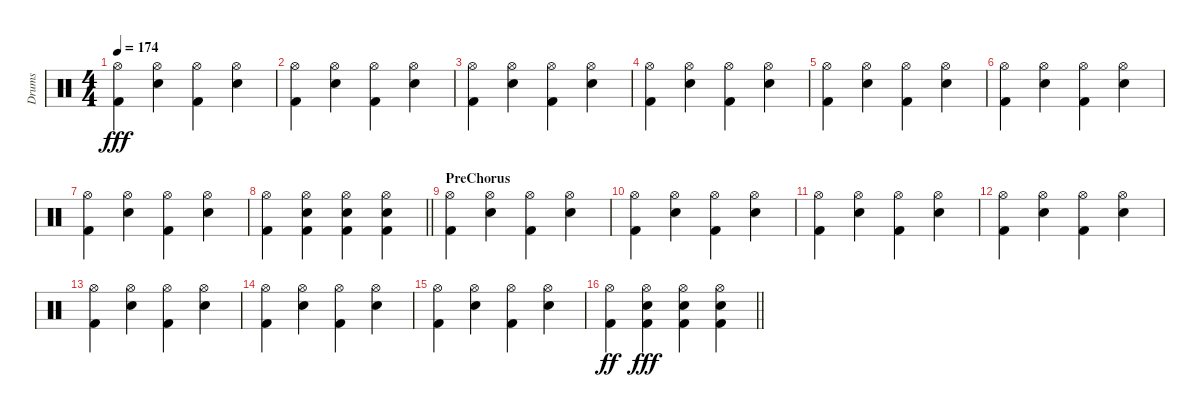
\track ("Drums" "Drums") {instrument percussion}
\staff {score}
\articulation defaults
\ts (4 4)
\tempo 174
\clef neutral
\ks c
("Hi-Hat (open)" "Kick (hit) 2").4{dy fff} ("Hi-Hat (open)" "Electric Snare (hit)").4 ("Hi-Hat (open)" "Kick (hit) 2").4 ("Hi-Hat (open)" "Electric Snare (hit)").4 |
("Hi-Hat (open)" "Kick (hit) 2").4 ("Hi-Hat (open)" "Electric Snare (hit)").4 ("Hi-Hat (open)" "Kick (hit) 2").4 ("Hi-Hat (open)" "Electric Snare (hit)").4 |
("Hi-Hat (open)" "Kick (hit) 2").4 ("Hi-Hat (open)" "Electric Snare (hit)").4 ("Hi-Hat (open)" "Kick (hit) 2").4 ("Hi-Hat (open)" "Electric Snare (hit)").4 |
("Hi-Hat (open)" "Kick (hit) 2").4 ("Hi-Hat (open)" "Electric Snare (hit)").4 ("Hi-Hat (open)" "Kick (hit) 2").4 ("Hi-Hat (open)" "Electric Snare (hit)").4 |
("Hi-Hat (open)" "Kick (hit) 2").4 ("Hi-Hat (open)" "Electric Snare (hit)").4 ("Hi-Hat (open)" "Kick (hit) 2").4 ("Hi-Hat (open)" "Electric Snare (hit)").4 |
("Hi-Hat (open)" "Kick (hit) 2").4 ("Hi-Hat (open)" "Electric Snare (hit)").4 ("Hi-Hat (open)" "Kick (hit) 2").4 ("Hi-Hat (open)" "Electric Snare (hit)").4 |
("Hi-Hat (open)" "Kick (hit) 2").4 ("Hi-Hat (open)" "Electric Snare (hit)").4 ("Hi-Hat (open)" "Kick (hit) 2").4 ("Hi-Hat (open)" "Electric Snare (hit)").4 |
\barLineRight lightlight
("Hi-Hat (open)" "Kick (hit) 2").4 ("Hi-Hat (open)" "Electric Snare (hit)" "Kick (hit) 2").4 ("Hi-Hat (open)" "Electric Snare (hit)" "Kick (hit) 2").4 ("Hi-Hat (open)" "Electric Snare (hit)" "Kick (hit) 2").4 |
\section ("" "PreChorus")
("Hi-Hat (open)" "Kick (hit) 2").4 ("Hi-Hat (open)" "Electric Snare (hit)").4 ("Hi-Hat (open)" "Kick (hit) 2").4 ("Hi-Hat (open)" "Electric Snare (hit)").4 |
("Hi-Hat (open)" "Kick (hit) 2").4 ("Hi-Hat (open)" "Electric Snare (hit)").4 ("Hi-Hat (open)" "Kick (hit) 2").4 ("Hi-Hat (open)" "Electric Snare (hit)").4 |
("Hi-Hat (open)" "Kick (hit) 2").4 ("Hi-Hat (open)" "Electric Snare (hit)").4 ("Hi-Hat (open)" "Kick (hit) 2").4 ("Hi-Hat (open)" "Electric Snare (hit)").4 |
("Hi-Hat (open)" "Kick (hit) 2").4 ("Hi-Hat (open)" "Electric Snare (hit)").4 ("Hi-Hat (open)" "Kick (hit) 2").4 ("Hi-Hat (open)" "Electric Snare (hit)").4 |
("Hi-Hat (open)" "Kick (hit) 2").4 ("Hi-Hat (open)" "Electric Snare (hit)").4 ("Hi-Hat (open)" "Kick (hit) 2").4 ("Hi-Hat (open)" "Electric Snare (hit)").4 |
("Hi-Hat (open)" "Kick (hit) 2").4 ("Hi-Hat (open)" "Electric Snare (hit)").4 ("Hi-Hat (open)" "Kick (hit) 2").4 ("Hi-Hat (open)" "Electric Snare (hit)").4 |
("Hi-Hat (open)" "Kick (hit) 2").4 ("Hi-Hat (open)" "Electric Snare (hit)").4 ("Hi-Hat (open)" "Kick (hit) 2").4 ("Hi-Hat (open)" "Electric Snare (hit)").4 |
\barLineRight lightlight
("Hi-Hat (open)" "Kick (hit) 2").4{dy ff} ("Hi-Hat (open)" "Electric Snare (hit)" "Kick (hit) 2").4{dy fff} ("Hi-Hat (open)" "Electric Snare (hit)" "Kick (hit) 2").4 ("Hi-Hat (open)" "Electric Snare (hit)" "Kick (hit) 2").4
